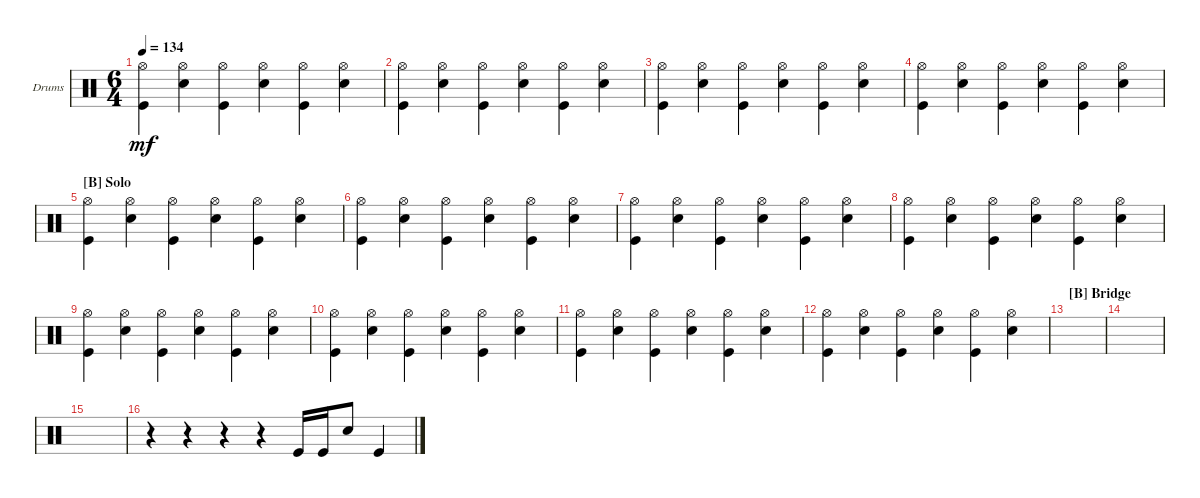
\defaultSystemsLayout 4
\bracketExtendMode groupsimilarinstruments
\firstSystemTrackNameOrientation horizontal
\otherSystemsTrackNameOrientation horizontal
\track ("Drumkit" "Drums") {instrument percussion}
\staff {score}
\articulation defaults
\ts (6 4)
\tempo 134
\clef neutral
\ks c
("Kick (hit)" "Hi-Hat (open)").4{dy mf} ("Snare (hit) 2" "Hi-Hat (open)").4 ("Kick (hit)" "Hi-Hat (open)").4 ("Snare (hit) 2" "Hi-Hat (open)").4 ("Kick (hit)" "Hi-Hat (open)").4 ("Snare (hit) 2" "Hi-Hat (open)").4 |
("Kick (hit)" "Hi-Hat (open)").4 ("Snare (hit) 2" "Hi-Hat (open)").4 ("Kick (hit)" "Hi-Hat (open)").4 ("Snare (hit) 2" "Hi-Hat (open)").4 ("Kick (hit)" "Hi-Hat (open)").4 ("Snare (hit) 2" "Hi-Hat (open)").4 |
("Kick (hit)" "Hi-Hat (open)").4 ("Snare (hit) 2" "Hi-Hat (open)").4 ("Kick (hit)" "Hi-Hat (open)").4 ("Snare (hit) 2" "Hi-Hat (open)").4 ("Kick (hit)" "Hi-Hat (open)").4 ("Snare (hit) 2" "Hi-Hat (open)").4 |
("Kick (hit)" "Hi-Hat (open)").4 ("Snare (hit) 2" "Hi-Hat (open)").4 ("Kick (hit)" "Hi-Hat (open)").4 ("Snare (hit) 2" "Hi-Hat (open)").4 ("Kick (hit)" "Hi-Hat (open)").4 ("Snare (hit) 2" "Hi-Hat (open)").4 |
\section ("B" "Solo")
("Kick (hit)" "Hi-Hat (open)").4 ("Snare (hit) 2" "Hi-Hat (open)").4 ("Kick (hit)" "Hi-Hat (open)").4 ("Snare (hit) 2" "Hi-Hat (open)").4 ("Kick (hit)" "Hi-Hat (open)").4 ("Snare (hit) 2" "Hi-Hat (open)").4 |
("Kick (hit)" "Hi-Hat (open)").4 ("Snare (hit) 2" "Hi-Hat (open)").4 ("Kick (hit)" "Hi-Hat (open)").4 ("Snare (hit) 2" "Hi-Hat (open)").4 ("Kick (hit)" "Hi-Hat (open)").4 ("Snare (hit) 2" "Hi-Hat (open)").4 |
("Kick (hit)" "Hi-Hat (open)").4 ("Snare (hit) 2" "Hi-Hat (open)").4 ("Kick (hit)" "Hi-Hat (open)").4 ("Snare (hit) 2" "Hi-Hat (open)").4 ("Kick (hit)" "Hi-Hat (open)").4 ("Snare (hit) 2" "Hi-Hat (open)").4 |
("Kick (hit)" "Hi-Hat (open)").4 ("Snare (hit) 2" "Hi-Hat (open)").4 ("Kick (hit)" "Hi-Hat (open)").4 ("Snare (hit) 2" "Hi-Hat (open)").4 ("Kick (hit)" "Hi-Hat (open)").4 ("Snare (hit) 2" "Hi-Hat (open)").4 |
("Kick (hit)" "Hi-Hat (open)").4 ("Snare (hit) 2" "Hi-Hat (open)").4 ("Kick (hit)" "Hi-Hat (open)").4 ("Snare (hit) 2" "Hi-Hat (open)").4 ("Kick (hit)" "Hi-Hat (open)").4 ("Snare (hit) 2" "Hi-Hat (open)").4 |
("Kick (hit)" "Hi-Hat (open)").4 ("Snare (hit) 2" "Hi-Hat (open)").4 ("Kick (hit)" "Hi-Hat (open)").4 ("Snare (hit) 2" "Hi-Hat (open)").4 ("Kick (hit)" "Hi-Hat (open)").4 ("Snare (hit) 2" "Hi-Hat (open)").4 |
("Kick (hit)" "Hi-Hat (open)").4 ("Snare (hit) 2" "Hi-Hat (open)").4 ("Kick (hit)" "Hi-Hat (open)").4 ("Snare (hit) 2" "Hi-Hat (open)").4 ("Kick (hit)" "Hi-Hat (open)").4 ("Snare (hit) 2" "Hi-Hat (open)").4 |
("Kick (hit)" "Hi-Hat (open)").4 ("Snare (hit) 2" "Hi-Hat (open)").4 ("Kick (hit)" "Hi-Hat (open)").4 ("Snare (hit) 2" "Hi-Hat (open)").4 ("Kick (hit)" "Hi-Hat (open)").4 ("Snare (hit) 2" "Hi-Hat (open)").4 |
\section ("B" "Bridge")
|
|
|
r.4 r.4 r.4 r.4 "Kick (hit)".16 "Kick (hit)".16 "Snare (hit) 2".8 "Kick (hit)".4
